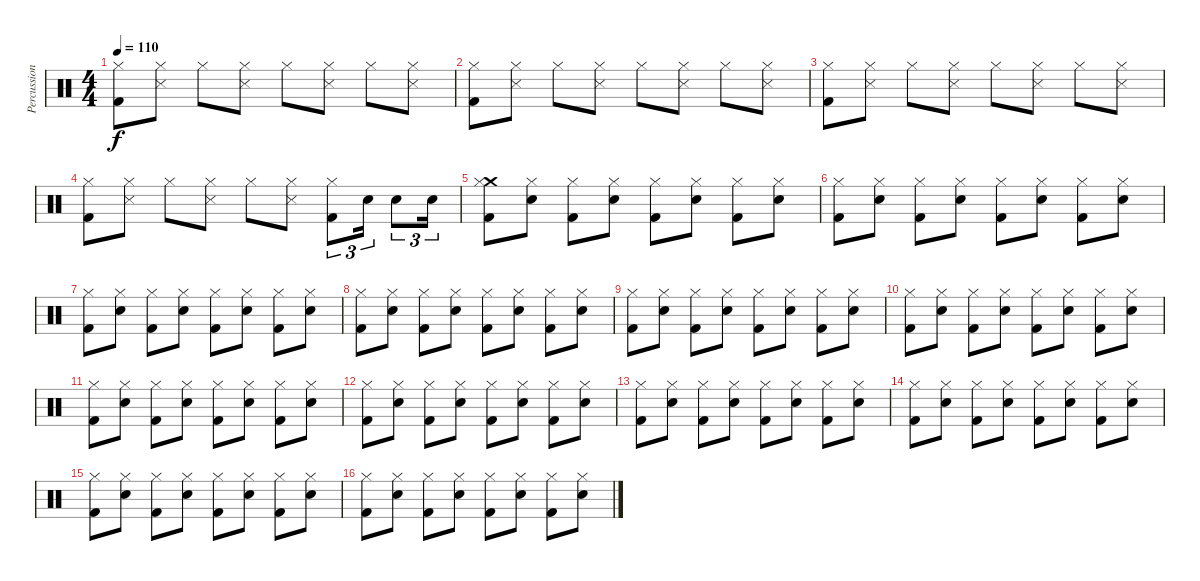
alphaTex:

\track ("Percussions" "Percussion") {instrument percussion}
\staff {score}
\articulation defaults
\ts (4 4)
\tempo 110
\clef neutral
\ks c
("Hi-Hat (closed)" "Kick (hit) 2").8{dy f} ("Hi-Hat (closed)" "Snare (side stick) 3").8 "Hi-Hat (closed)".8 ("Hi-Hat (closed)" "Snare (side stick) 3").8 "Hi-Hat (closed)".8 ("Hi-Hat (closed)" "Snare (side stick) 3").8 "Hi-Hat (closed)".8 ("Hi-Hat (closed)" "Snare (side stick) 3").8 |
("Hi-Hat (closed)" "Kick (hit) 2").8 ("Hi-Hat (closed)" "Snare (side stick) 3").8 "Hi-Hat (closed)".8 ("Hi-Hat (closed)" "Snare (side stick) 3").8 "Hi-Hat (closed)".8 ("Hi-Hat (closed)" "Snare (side stick) 3").8 "Hi-Hat (closed)".8 ("Hi-Hat (closed)" "Snare (side stick) 3").8 |
("Hi-Hat (closed)" "Kick (hit) 2").8 ("Hi-Hat (closed)" "Snare (side stick) 3").8 "Hi-Hat (closed)".8 ("Hi-Hat (closed)" "Snare (side stick) 3").8 "Hi-Hat (closed)".8 ("Hi-Hat (closed)" "Snare (side stick) 3").8 "Hi-Hat (closed)".8 ("Hi-Hat (closed)" "Snare (side stick) 3").8 |
("Hi-Hat (closed)" "Kick (hit) 2").8 ("Hi-Hat (closed)" "Snare (side stick) 3").8 "Hi-Hat (closed)".8 ("Hi-Hat (closed)" "Snare (side stick) 3").8 "Hi-Hat (closed)".8 ("Hi-Hat (closed)" "Snare (side stick) 3").8 ("Hi-Hat (closed)" "Kick (hit) 2").8{tu (3 2)} "Electric Snare (hit)".16{tu (3 2)} "Electric Snare (hit)".8{tu (3 2)} "Electric Snare (hit)".16{tu (3 2)} |
("Crash medium (hit)" "Hi-Hat (closed)" "Kick (hit) 2").8 ("Hi-Hat (closed)" "Electric Snare (hit)").8 ("Hi-Hat (closed)" "Kick (hit) 2").8 ("Hi-Hat (closed)" "Electric Snare (hit)").8 ("Hi-Hat (closed)" "Kick (hit) 2").8 ("Hi-Hat (closed)" "Electric Snare (hit)").8 ("Hi-Hat (closed)" "Kick (hit) 2").8 ("Hi-Hat (closed)" "Electric Snare (hit)").8 |
("Hi-Hat (closed)" "Kick (hit) 2").8 ("Hi-Hat (closed)" "Electric Snare (hit)").8 ("Hi-Hat (closed)" "Kick (hit) 2").8 ("Hi-Hat (closed)" "Electric Snare (hit)").8 ("Hi-Hat (closed)" "Kick (hit) 2").8 ("Hi-Hat (closed)" "Electric Snare (hit)").8 ("Hi-Hat (closed)" "Kick (hit) 2").8 ("Hi-Hat (closed)" "Electric Snare (hit)").8 |
("Hi-Hat (closed)" "Kick (hit) 2").8 ("Hi-Hat (closed)" "Electric Snare (hit)").8 ("Hi-Hat (closed)" "Kick (hit) 2").8 ("Hi-Hat (closed)" "Electric Snare (hit)").8 ("Hi-Hat (closed)" "Kick (hit) 2").8 ("Hi-Hat (closed)" "Electric Snare (hit)").8 ("Hi-Hat (closed)" "Kick (hit) 2").8 ("Hi-Hat (closed)" "Electric Snare (hit)").8 |
("Hi-Hat (closed)" "Kick (hit) 2").8 ("Hi-Hat (closed)" "Electric Snare (hit)").8 ("Hi-Hat (closed)" "Kick (hit) 2").8 ("Hi-Hat (closed)" "Electric Snare (hit)").8 ("Hi-Hat (closed)" "Kick (hit) 2").8 ("Hi-Hat (closed)" "Electric Snare (hit)").8 ("Hi-Hat (closed)" "Kick (hit) 2").8 ("Hi-Hat (closed)" "Electric Snare (hit)").8 |
("Hi-Hat (closed)" "Kick (hit) 2").8 ("Hi-Hat (closed)" "Electric Snare (hit)").8 ("Hi-Hat (closed)" "Kick (hit) 2").8 ("Hi-Hat (closed)" "Electric Snare (hit)").8 ("Hi-Hat (closed)" "Kick (hit) 2").8 ("Hi-Hat (closed)" "Electric Snare (hit)").8 ("Hi-Hat (closed)" "Kick (hit) 2").8 ("Hi-Hat (closed)" "Electric Snare (hit)").8 |
("Hi-Hat (closed)" "Kick (hit) 2").8 ("Hi-Hat (closed)" "Electric Snare (hit)").8 ("Hi-Hat (closed)" "Kick (hit) 2").8 ("Hi-Hat (closed)" "Electric Snare (hit)").8 ("Hi-Hat (closed)" "Kick (hit) 2").8 ("Hi-Hat (closed)" "Electric Snare (hit)").8 ("Hi-Hat (closed)" "Kick (hit) 2").8 ("Hi-Hat (closed)" "Electric Snare (hit)").8 |
("Hi-Hat (closed)" "Kick (hit) 2").8 ("Hi-Hat (closed)" "Electric Snare (hit)").8 ("Hi-Hat (closed)" "Kick (hit) 2").8 ("Hi-Hat (closed)" "Electric Snare (hit)").8 ("Hi-Hat (closed)" "Kick (hit) 2").8 ("Hi-Hat (closed)" "Electric Snare (hit)").8 ("Hi-Hat (closed)" "Kick (hit) 2").8 ("Hi-Hat (closed)" "Electric Snare (hit)").8 |
("Hi-Hat (closed)" "Kick (hit) 2").8 ("Hi-Hat (closed)" "Electric Snare (hit)").8 ("Hi-Hat (closed)" "Kick (hit) 2").8 ("Hi-Hat (closed)" "Electric Snare (hit)").8 ("Hi-Hat (closed)" "Kick (hit) 2").8 ("Hi-Hat (closed)" "Electric Snare (hit)").8 ("Hi-Hat (closed)" "Kick (hit) 2").8 ("Hi-Hat (closed)" "Electric Snare (hit)").8 |
("Hi-Hat (closed)" "Kick (hit) 2").8 ("Hi-Hat (closed)" "Electric Snare (hit)").8 ("Hi-Hat (closed)" "Kick (hit) 2").8 ("Hi-Hat (closed)" "Electric Snare (hit)").8 ("Hi-Hat (closed)" "Kick (hit) 2").8 ("Hi-Hat (closed)" "Electric Snare (hit)").8 ("Hi-Hat (closed)" "Kick (hit) 2").8 ("Hi-Hat (closed)" "Electric Snare (hit)").8 |
("Hi-Hat (closed)" "Kick (hit) 2").8 ("Hi-Hat (closed)" "Electric Snare (hit)").8 ("Hi-Hat (closed)" "Kick (hit) 2").8 ("Hi-Hat (closed)" "Electric Snare (hit)").8 ("Hi-Hat (closed)" "Kick (hit) 2").8 ("Hi-Hat (closed)" "Electric Snare (hit)").8 ("Hi-Hat (closed)" "Kick (hit) 2").8 ("Hi-Hat (closed)" "Electric Snare (hit)").8 |
("Hi-Hat (closed)" "Kick (hit) 2").8 ("Hi-Hat (closed)" "Electric Snare (hit)").8 ("Hi-Hat (closed)" "Kick (hit) 2").8 ("Hi-Hat (closed)" "Electric Snare (hit)").8 ("Hi-Hat (closed)" "Kick (hit) 2").8 ("Hi-Hat (closed)" "Electric Snare (hit)").8 ("Hi-Hat (closed)" "Kick (hit) 2").8 ("Hi-Hat (closed)" "Electric Snare (hit)").8 |
("Hi-Hat (closed)" "Kick (hit) 2").8 ("Hi-Hat (closed)" "Electric Snare (hit)").8 ("Hi-Hat (closed)" "Kick (hit) 2").8 ("Hi-Hat (closed)" "Electric Snare (hit)").8 ("Hi-Hat (closed)" "Kick (hit) 2").8 ("Hi-Hat (closed)" "Electric Snare (hit)").8 ("Hi-Hat (closed)" "Kick (hit) 2").8 ("Hi-Hat (closed)" "Electric Snare (hit)").8
